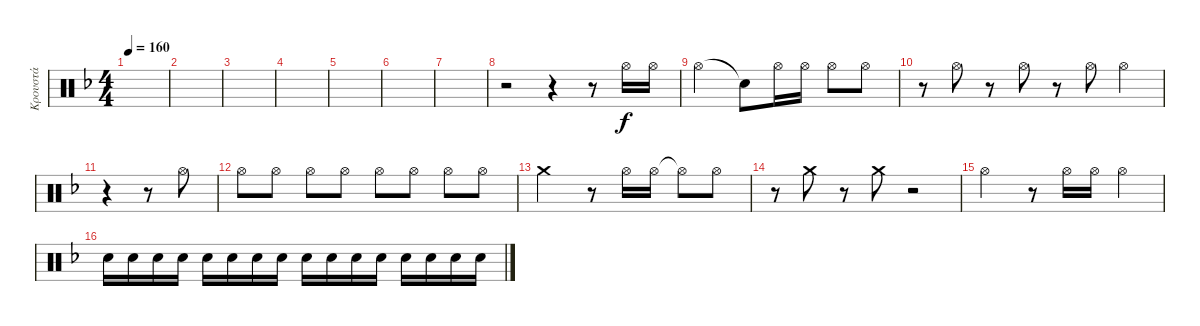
\track ("Κρουστά" "Κρουστά") {instrument percussion}
\staff {score}
\articulation defaults
\ts (4 4)
\tempo 160
\clef neutral
\ks dminor
|
|
|
|
|
|
|
r.2 r.4 r.8 "Hi-Hat (open)".16 "Hi-Hat (open)".16 |
"Hi-Hat (open)".2 "Snare (hit)"{t}.8 "Hi-Hat (open)".16 "Hi-Hat (open)".16 "Hi-Hat (open)".8 "Hi-Hat (open)".8 |
r.8 "Hi-Hat (open)".8 r.8 "Hi-Hat (open)".8 r.8 "Hi-Hat (open)".8 "Hi-Hat (open)".4 |
r.4 r.8 "Hi-Hat (open)".8 |
"Hi-Hat (open)".8 "Hi-Hat (open)".8 "Hi-Hat (open)".8 "Hi-Hat (open)".8 "Hi-Hat (open)".8 "Hi-Hat (open)".8 "Hi-Hat (open)".8 "Hi-Hat (open)".8 |
"Crash medium (hit)".2 r.8 "Hi-Hat (open)".16 "Hi-Hat (open)".16 "Hi-Hat (open)"{t}.8 "Hi-Hat (open)".8 |
r.8 "Crash medium (hit)".8 r.8 "Crash medium (hit)".8 r.2 |
"Hi-Hat (open)".2 r.8 "Hi-Hat (open)".16 "Hi-Hat (open)".16 "Hi-Hat (open)".4 |
"Snare (hit) 2".16 "Snare (hit) 2".16 "Snare (hit) 2".16 "Snare (hit) 2".16 "Snare (hit) 2".16 "Snare (hit) 2".16 "Snare (hit) 2".16 "Snare (hit) 2".16 "Snare (hit) 2".16 "Snare (hit) 2".16 "Snare (hit) 2".16 "Snare (hit) 2".16 "Snare (hit) 2".16 "Snare (hit) 2".16 "Snare (hit) 2".16 "Snare (hit) 2".16
